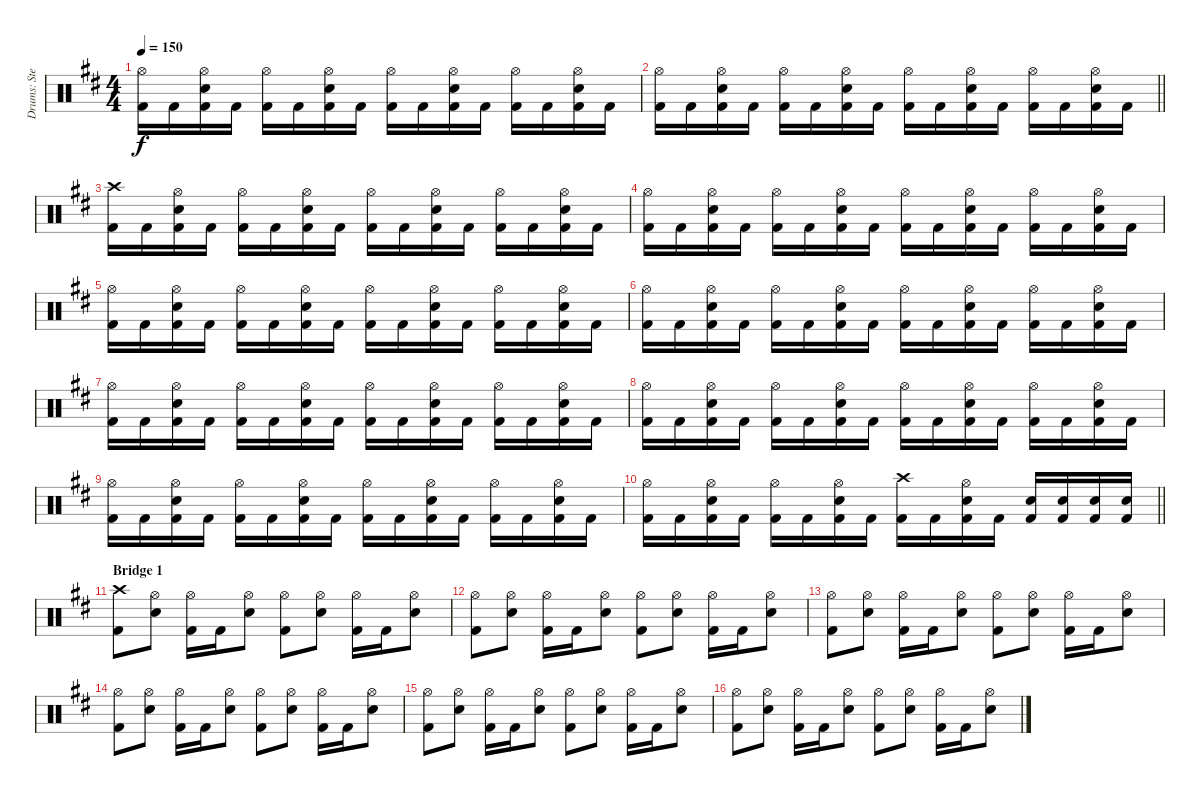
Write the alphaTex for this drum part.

\track ("Drums: Stefan Svantesson" "Drums: Ste") {instrument percussion}
\staff {score}
\articulation defaults
\ts (4 4)
\tempo 150
\clef neutral
\ks d
("Hi-Hat (open)" "Kick (hit) 2").16{dy f} "Kick (hit) 2".16 ("Hi-Hat (open)" "Electric Snare (hit)" "Kick (hit) 2").16 "Kick (hit) 2".16 ("Hi-Hat (open)" "Kick (hit) 2").16 "Kick (hit) 2".16 ("Hi-Hat (open)" "Electric Snare (hit)" "Kick (hit) 2").16 "Kick (hit) 2".16 ("Hi-Hat (open)" "Kick (hit) 2").16 "Kick (hit) 2".16 ("Hi-Hat (open)" "Electric Snare (hit)" "Kick (hit) 2").16 "Kick (hit) 2".16 ("Hi-Hat (open)" "Kick (hit) 2").16 "Kick (hit) 2".16 ("Hi-Hat (open)" "Electric Snare (hit)" "Kick (hit) 2").16 "Kick (hit) 2".16 |
\barLineRight lightlight
("Hi-Hat (open)" "Kick (hit) 2").16 "Kick (hit) 2".16 ("Hi-Hat (open)" "Electric Snare (hit)" "Kick (hit) 2").16 "Kick (hit) 2".16 ("Hi-Hat (open)" "Kick (hit) 2").16 "Kick (hit) 2".16 ("Hi-Hat (open)" "Electric Snare (hit)" "Kick (hit) 2").16 "Kick (hit) 2".16 ("Hi-Hat (open)" "Kick (hit) 2").16 "Kick (hit) 2".16 ("Hi-Hat (open)" "Electric Snare (hit)" "Kick (hit) 2").16 "Kick (hit) 2".16 ("Hi-Hat (open)" "Kick (hit) 2").16 "Kick (hit) 2".16 ("Hi-Hat (open)" "Electric Snare (hit)" "Kick (hit) 2").16 "Kick (hit) 2".16 |
("Crash high (hit)" "Kick (hit) 2").16 "Kick (hit) 2".16 ("Hi-Hat (open)" "Electric Snare (hit)" "Kick (hit) 2").16 "Kick (hit) 2".16 ("Hi-Hat (open)" "Kick (hit) 2").16 "Kick (hit) 2".16 ("Hi-Hat (open)" "Electric Snare (hit)" "Kick (hit) 2").16 "Kick (hit) 2".16 ("Hi-Hat (open)" "Kick (hit) 2").16 "Kick (hit) 2".16 ("Hi-Hat (open)" "Electric Snare (hit)" "Kick (hit) 2").16 "Kick (hit) 2".16 ("Hi-Hat (open)" "Kick (hit) 2").16 "Kick (hit) 2".16 ("Hi-Hat (open)" "Electric Snare (hit)" "Kick (hit) 2").16 "Kick (hit) 2".16 |
("Hi-Hat (open)" "Kick (hit) 2").16 "Kick (hit) 2".16 ("Hi-Hat (open)" "Electric Snare (hit)" "Kick (hit) 2").16 "Kick (hit) 2".16 ("Hi-Hat (open)" "Kick (hit) 2").16 "Kick (hit) 2".16 ("Hi-Hat (open)" "Electric Snare (hit)" "Kick (hit) 2").16 "Kick (hit) 2".16 ("Hi-Hat (open)" "Kick (hit) 2").16 "Kick (hit) 2".16 ("Hi-Hat (open)" "Electric Snare (hit)" "Kick (hit) 2").16 "Kick (hit) 2".16 ("Hi-Hat (open)" "Kick (hit) 2").16 "Kick (hit) 2".16 ("Hi-Hat (open)" "Electric Snare (hit)" "Kick (hit) 2").16 "Kick (hit) 2".16 |
("Hi-Hat (open)" "Kick (hit) 2").16 "Kick (hit) 2".16 ("Hi-Hat (open)" "Electric Snare (hit)" "Kick (hit) 2").16 "Kick (hit) 2".16 ("Hi-Hat (open)" "Kick (hit) 2").16 "Kick (hit) 2".16 ("Hi-Hat (open)" "Electric Snare (hit)" "Kick (hit) 2").16 "Kick (hit) 2".16 ("Hi-Hat (open)" "Kick (hit) 2").16 "Kick (hit) 2".16 ("Hi-Hat (open)" "Electric Snare (hit)" "Kick (hit) 2").16 "Kick (hit) 2".16 ("Hi-Hat (open)" "Kick (hit) 2").16 "Kick (hit) 2".16 ("Hi-Hat (open)" "Electric Snare (hit)" "Kick (hit) 2").16 "Kick (hit) 2".16 |
("Hi-Hat (open)" "Kick (hit) 2").16 "Kick (hit) 2".16 ("Hi-Hat (open)" "Electric Snare (hit)" "Kick (hit) 2").16 "Kick (hit) 2".16 ("Hi-Hat (open)" "Kick (hit) 2").16 "Kick (hit) 2".16 ("Hi-Hat (open)" "Electric Snare (hit)" "Kick (hit) 2").16 "Kick (hit) 2".16 ("Hi-Hat (open)" "Kick (hit) 2").16 "Kick (hit) 2".16 ("Hi-Hat (open)" "Electric Snare (hit)" "Kick (hit) 2").16 "Kick (hit) 2".16 ("Hi-Hat (open)" "Kick (hit) 2").16 "Kick (hit) 2".16 ("Hi-Hat (open)" "Electric Snare (hit)" "Kick (hit) 2").16 "Kick (hit) 2".16 |
("Hi-Hat (open)" "Kick (hit) 2").16 "Kick (hit) 2".16 ("Hi-Hat (open)" "Electric Snare (hit)" "Kick (hit) 2").16 "Kick (hit) 2".16 ("Hi-Hat (open)" "Kick (hit) 2").16 "Kick (hit) 2".16 ("Hi-Hat (open)" "Electric Snare (hit)" "Kick (hit) 2").16 "Kick (hit) 2".16 ("Hi-Hat (open)" "Kick (hit) 2").16 "Kick (hit) 2".16 ("Hi-Hat (open)" "Electric Snare (hit)" "Kick (hit) 2").16 "Kick (hit) 2".16 ("Hi-Hat (open)" "Kick (hit) 2").16 "Kick (hit) 2".16 ("Hi-Hat (open)" "Electric Snare (hit)" "Kick (hit) 2").16 "Kick (hit) 2".16 |
("Hi-Hat (open)" "Kick (hit) 2").16 "Kick (hit) 2".16 ("Hi-Hat (open)" "Electric Snare (hit)" "Kick (hit) 2").16 "Kick (hit) 2".16 ("Hi-Hat (open)" "Kick (hit) 2").16 "Kick (hit) 2".16 ("Hi-Hat (open)" "Electric Snare (hit)" "Kick (hit) 2").16 "Kick (hit) 2".16 ("Hi-Hat (open)" "Kick (hit) 2").16 "Kick (hit) 2".16 ("Hi-Hat (open)" "Electric Snare (hit)" "Kick (hit) 2").16 "Kick (hit) 2".16 ("Hi-Hat (open)" "Kick (hit) 2").16 "Kick (hit) 2".16 ("Hi-Hat (open)" "Electric Snare (hit)" "Kick (hit) 2").16 "Kick (hit) 2".16 |
("Hi-Hat (open)" "Kick (hit) 2").16 "Kick (hit) 2".16 ("Hi-Hat (open)" "Electric Snare (hit)" "Kick (hit) 2").16 "Kick (hit) 2".16 ("Hi-Hat (open)" "Kick (hit) 2").16 "Kick (hit) 2".16 ("Hi-Hat (open)" "Electric Snare (hit)" "Kick (hit) 2").16 "Kick (hit) 2".16 ("Hi-Hat (open)" "Kick (hit) 2").16 "Kick (hit) 2".16 ("Hi-Hat (open)" "Electric Snare (hit)" "Kick (hit) 2").16 "Kick (hit) 2".16 ("Hi-Hat (open)" "Kick (hit) 2").16 "Kick (hit) 2".16 ("Hi-Hat (open)" "Electric Snare (hit)" "Kick (hit) 2").16 "Kick (hit) 2".16 |
\barLineRight lightlight
("Hi-Hat (open)" "Kick (hit) 2").16 "Kick (hit) 2".16 ("Hi-Hat (open)" "Electric Snare (hit)" "Kick (hit) 2").16 "Kick (hit) 2".16 ("Hi-Hat (open)" "Kick (hit) 2").16 "Kick (hit) 2".16 ("Hi-Hat (open)" "Electric Snare (hit)" "Kick (hit) 2").16 "Kick (hit) 2".16 ("Crash high (hit)" "Kick (hit) 2").16 "Kick (hit) 2".16 ("Hi-Hat (open)" "Electric Snare (hit)" "Kick (hit) 2").16 "Kick (hit) 2".16 ("Electric Snare (hit)" "Kick (hit) 2").16 ("Electric Snare (hit)" "Kick (hit) 2").16 ("Electric Snare (hit)" "Kick (hit) 2").16 ("Electric Snare (hit)" "Kick (hit) 2").16 |
\section ("" "Bridge 1")
("Crash high (hit)" "Kick (hit) 2").8 ("Hi-Hat (open)" "Electric Snare (hit)").8 ("Hi-Hat (open)" "Kick (hit) 2").16 "Kick (hit) 2".16 ("Hi-Hat (open)" "Electric Snare (hit)").8 ("Hi-Hat (open)" "Kick (hit) 2").8 ("Hi-Hat (open)" "Electric Snare (hit)").8 ("Hi-Hat (open)" "Kick (hit) 2").16 "Kick (hit) 2".16 ("Hi-Hat (open)" "Electric Snare (hit)").8 |
("Hi-Hat (open)" "Kick (hit) 2").8 ("Hi-Hat (open)" "Electric Snare (hit)").8 ("Hi-Hat (open)" "Kick (hit) 2").16 "Kick (hit) 2".16 ("Hi-Hat (open)" "Electric Snare (hit)").8 ("Hi-Hat (open)" "Kick (hit) 2").8 ("Hi-Hat (open)" "Electric Snare (hit)").8 ("Hi-Hat (open)" "Kick (hit) 2").16 "Kick (hit) 2".16 ("Hi-Hat (open)" "Electric Snare (hit)").8 |
("Hi-Hat (open)" "Kick (hit) 2").8 ("Hi-Hat (open)" "Electric Snare (hit)").8 ("Hi-Hat (open)" "Kick (hit) 2").16 "Kick (hit) 2".16 ("Hi-Hat (open)" "Electric Snare (hit)").8 ("Hi-Hat (open)" "Kick (hit) 2").8 ("Hi-Hat (open)" "Electric Snare (hit)").8 ("Hi-Hat (open)" "Kick (hit) 2").16 "Kick (hit) 2".16 ("Hi-Hat (open)" "Electric Snare (hit)").8 |
("Hi-Hat (open)" "Kick (hit) 2").8 ("Hi-Hat (open)" "Electric Snare (hit)").8 ("Hi-Hat (open)" "Kick (hit) 2").16 "Kick (hit) 2".16 ("Hi-Hat (open)" "Electric Snare (hit)").8 ("Hi-Hat (open)" "Kick (hit) 2").8 ("Hi-Hat (open)" "Electric Snare (hit)").8 ("Hi-Hat (open)" "Kick (hit) 2").16 "Kick (hit) 2".16 ("Hi-Hat (open)" "Electric Snare (hit)").8 |
("Hi-Hat (open)" "Kick (hit) 2").8 ("Hi-Hat (open)" "Electric Snare (hit)").8 ("Hi-Hat (open)" "Kick (hit) 2").16 "Kick (hit) 2".16 ("Hi-Hat (open)" "Electric Snare (hit)").8 ("Hi-Hat (open)" "Kick (hit) 2").8 ("Hi-Hat (open)" "Electric Snare (hit)").8 ("Hi-Hat (open)" "Kick (hit) 2").16 "Kick (hit) 2".16 ("Hi-Hat (open)" "Electric Snare (hit)").8 |
("Hi-Hat (open)" "Kick (hit) 2").8 ("Hi-Hat (open)" "Electric Snare (hit)").8 ("Hi-Hat (open)" "Kick (hit) 2").16 "Kick (hit) 2".16 ("Hi-Hat (open)" "Electric Snare (hit)").8 ("Hi-Hat (open)" "Kick (hit) 2").8 ("Hi-Hat (open)" "Electric Snare (hit)").8 ("Hi-Hat (open)" "Kick (hit) 2").16 "Kick (hit) 2".16 ("Hi-Hat (open)" "Electric Snare (hit)").8
